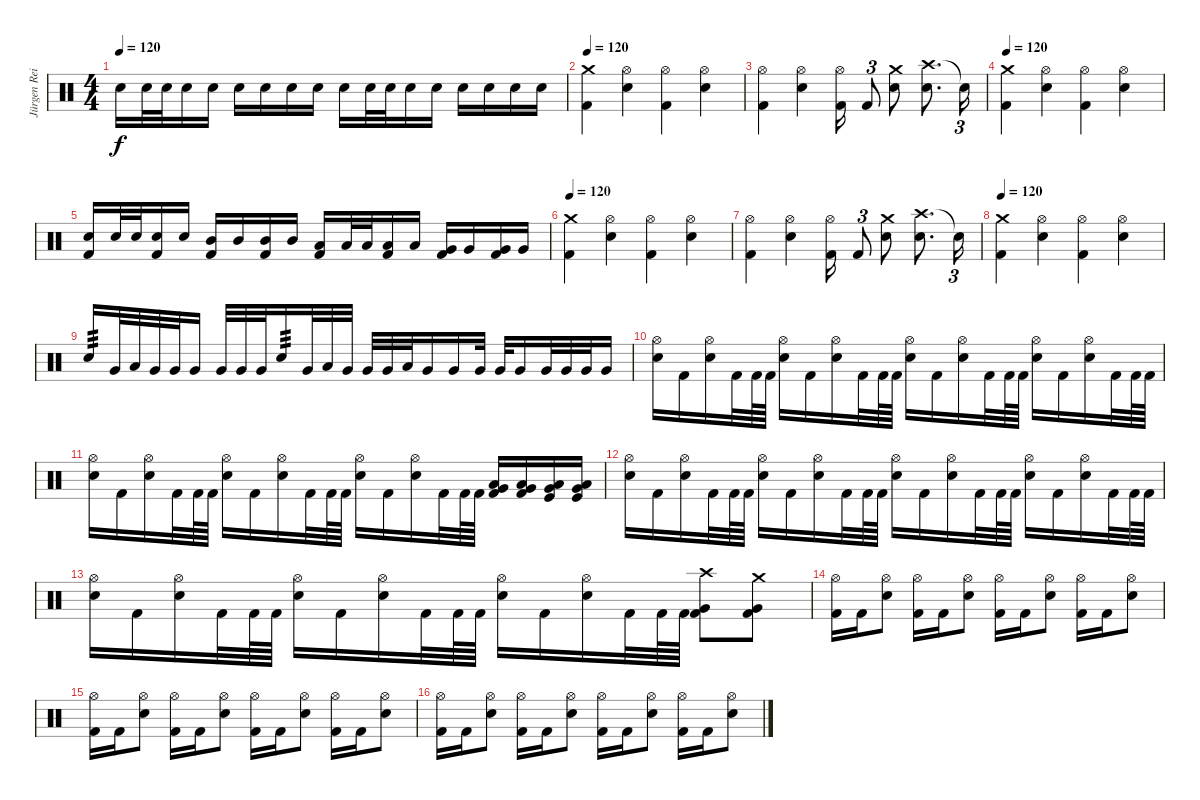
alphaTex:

\track ("Jürgen Reil" "Jürgen Rei") {instrument percussion}
\staff {score}
\articulation defaults
\ts (4 4)
\tempo 120
\clef neutral
\ks c "Electric Snare (hit)".16{dy f} "Electric Snare (hit)".32 "Electric Snare (hit)".32 "Electric Snare (hit)".16 "Electric Snare (hit)".16 "Electric Snare (hit)".16 "Electric Snare (hit)".16 "Electric Snare (hit)".16 "Electric Snare (hit)".16 "Electric Snare (hit)".16 "Electric Snare (hit)".32 "Electric Snare (hit)".32 "Electric Snare (hit)".16 "Electric Snare (hit)".16 "Electric Snare (hit)".16 "Electric Snare (hit)".16 "Electric Snare (hit)".16 "Electric Snare (hit)".16
|
\tempo 120
("Crash medium (hit)" "Kick (hit) 2").4 ("Hi-Hat (open)" "Electric Snare (hit)").4 ("Hi-Hat (open)" "Kick (hit) 2").4 ("Hi-Hat (open)" "Electric Snare (hit)").4 |
("Hi-Hat (open)" "Kick (hit) 2").4 ("Hi-Hat (open)" "Electric Snare (hit)").4 ("Hi-Hat (open)" "Kick (hit) 2").16 "Kick (hit) 2".8{tu (3 2)} ("Crash medium (hit)" "Electric Snare (hit)").8 ("Crash high (hit)" "Electric Snare (hit)").8{d} "Snare (hit)"{t}.16{tu (3 2)} |
\tempo 120
("Crash medium (hit)" "Kick (hit) 2").4 ("Hi-Hat (open)" "Electric Snare (hit)").4 ("Hi-Hat (open)" "Kick (hit) 2").4 ("Hi-Hat (open)" "Electric Snare (hit)").4 |
("Electric Snare (hit)" "Kick (hit) 2").16 "Electric Snare (hit)".32 "Electric Snare (hit)".32 ("Electric Snare (hit)" "Kick (hit) 2").16 "Electric Snare (hit)".16 ("Mid Tom (hit)" "Kick (hit) 2").16 "Mid Tom (hit)".16 ("Mid Tom (hit)" "Kick (hit) 2").16 "Mid Tom (hit)".16 ("Low Tom (hit)" "Kick (hit) 2").16 "Low Tom (hit)".32 "Low Tom (hit)".32 ("Low Tom (hit)" "Kick (hit) 2").16 "Low Tom (hit)".16 ("Very Low Tom (hit)" "Kick (hit) 2").16 "Very Low Tom (hit)".16 ("Very Low Tom (hit)" "Kick (hit) 2").16 "Very Low Tom (hit)".16 |
\tempo 120
("Crash medium (hit)" "Kick (hit) 2").4 ("Hi-Hat (open)" "Electric Snare (hit)").4 ("Hi-Hat (open)" "Kick (hit) 2").4 ("Hi-Hat (open)" "Electric Snare (hit)").4 |
("Hi-Hat (open)" "Kick (hit) 2").4 ("Hi-Hat (open)" "Electric Snare (hit)").4 ("Hi-Hat (open)" "Kick (hit) 2").16 "Kick (hit) 2".8{tu (3 2)} ("Crash medium (hit)" "Electric Snare (hit)").8 ("Crash high (hit)" "Electric Snare (hit)").8{d} "Snare (hit)"{t}.16{tu (3 2)} |
\tempo 120
("Crash medium (hit)" "Kick (hit) 2").4 ("Hi-Hat (open)" "Electric Snare (hit)").4 ("Hi-Hat (open)" "Kick (hit) 2").4 ("Hi-Hat (open)" "Electric Snare (hit)").4 |
"Electric Snare (hit)".16{tp 3} "Very Low Tom (hit)".32 "Low Tom (hit)".32 "Very Low Tom (hit)".32 "Very Low Tom (hit)".32 "Very Low Tom (hit)".16 "Very Low Tom (hit)".32 "Very Low Tom (hit)".32 "Very Low Tom (hit)".32 "Electric Snare (hit)".16{tp 3} "Very Low Tom (hit)".32 "Low Tom (hit)".32 "Very Low Tom (hit)".32 "Very Low Tom (hit)".32 "Very Low Tom (hit)".32 "Low Tom (hit)".32 "Very Low Tom (hit)".16 "Very Low Tom (hit)".16 "Very Low Tom (hit)".32 "Very Low Tom (hit)".32 "Very Low Tom (hit)".16 "Very Low Tom (hit)".32 "Very Low Tom (hit)".32 "Very Low Tom (hit)".32 "Very Low Tom (hit)".16 |
("Hi-Hat (open)" "Electric Snare (hit)").16 "Kick (hit) 2".16 ("Hi-Hat (open)" "Electric Snare (hit)").16 "Kick (hit) 2".32 "Kick (hit) 2".64 "Kick (hit) 2".64 ("Hi-Hat (open)" "Electric Snare (hit)").16 "Kick (hit) 2".16 ("Hi-Hat (open)" "Electric Snare (hit)").16 "Kick (hit) 2".32 "Kick (hit) 2".64 "Kick (hit) 2".64 ("Hi-Hat (open)" "Electric Snare (hit)").16 "Kick (hit) 2".16 ("Hi-Hat (open)" "Electric Snare (hit)").16 "Kick (hit) 2".32 "Kick (hit) 2".64 "Kick (hit) 2".64 ("Hi-Hat (open)" "Electric Snare (hit)").16 "Kick (hit) 2".16 ("Hi-Hat (open)" "Electric Snare (hit)").16 "Kick (hit) 2".32 "Kick (hit) 2".64 "Kick (hit) 2".64 |
("Hi-Hat (open)" "Electric Snare (hit)").16 "Kick (hit) 2".16 ("Hi-Hat (open)" "Electric Snare (hit)").16 "Kick (hit) 2".32 "Kick (hit) 2".64 "Kick (hit) 2".64 ("Hi-Hat (open)" "Electric Snare (hit)").16 "Kick (hit) 2".16 ("Hi-Hat (open)" "Electric Snare (hit)").16 "Kick (hit) 2".32 "Kick (hit) 2".64 "Kick (hit) 2".64 ("Hi-Hat (open)" "Electric Snare (hit)").16 "Kick (hit) 2".16 ("Hi-Hat (open)" "Electric Snare (hit)").16 "Kick (hit) 2".32 "Kick (hit) 2".64 "Kick (hit) 2".64 ("Low Tom (hit)" "Very Low Tom (hit)" "Kick (hit) 2").16 ("Low Tom (hit)" "Very Low Tom (hit)" "Kick (hit) 2").16 ("Low Tom (hit)" "Very Low Tom (hit)" "Kick (hit)").16 ("Low Tom (hit)" "Very Low Tom (hit)" "Kick (hit)").16 |
("Hi-Hat (open)" "Electric Snare (hit)").16 "Kick (hit) 2".16 ("Hi-Hat (open)" "Electric Snare (hit)").16 "Kick (hit) 2".32 "Kick (hit) 2".64 "Kick (hit) 2".64 ("Hi-Hat (open)" "Electric Snare (hit)").16 "Kick (hit) 2".16 ("Hi-Hat (open)" "Electric Snare (hit)").16 "Kick (hit) 2".32 "Kick (hit) 2".64 "Kick (hit) 2".64 ("Hi-Hat (open)" "Electric Snare (hit)").16 "Kick (hit) 2".16 ("Hi-Hat (open)" "Electric Snare (hit)").16 "Kick (hit) 2".32 "Kick (hit) 2".64 "Kick (hit) 2".64 ("Hi-Hat (open)" "Electric Snare (hit)").16 "Kick (hit) 2".16 ("Hi-Hat (open)" "Electric Snare (hit)").16 "Kick (hit) 2".32 "Kick (hit) 2".64 "Kick (hit) 2".64 |
("Hi-Hat (open)" "Electric Snare (hit)").16 "Kick (hit) 2".16 ("Hi-Hat (open)" "Electric Snare (hit)").16 "Kick (hit) 2".32 "Kick (hit) 2".64 "Kick (hit) 2".64 ("Hi-Hat (open)" "Electric Snare (hit)").16 "Kick (hit) 2".16 ("Hi-Hat (open)" "Electric Snare (hit)").16 "Kick (hit) 2".32 "Kick (hit) 2".64 "Kick (hit) 2".64 ("Hi-Hat (open)" "Electric Snare (hit)").16 "Kick (hit) 2".16 ("Hi-Hat (open)" "Electric Snare (hit)").16 "Kick (hit) 2".32 "Kick (hit) 2".64 "Kick (hit) 2".64 ("Crash high (hit)" "Very Low Tom (hit)" "Kick (hit) 2").8 ("Crash medium (hit)" "Very Low Tom (hit)" "Kick (hit) 2").8 |
("Hi-Hat (open)" "Kick (hit) 2").16 "Kick (hit) 2".16 ("Hi-Hat (open)" "Electric Snare (hit)").8 ("Hi-Hat (open)" "Kick (hit) 2").16 "Kick (hit) 2".16 ("Hi-Hat (open)" "Electric Snare (hit)").8 ("Hi-Hat (open)" "Kick (hit) 2").16 "Kick (hit) 2".16 ("Hi-Hat (open)" "Electric Snare (hit)").8 ("Hi-Hat (open)" "Kick (hit) 2").16 "Kick (hit) 2".16 ("Hi-Hat (open)" "Electric Snare (hit)").8 |
("Hi-Hat (open)" "Kick (hit) 2").16 "Kick (hit) 2".16 ("Hi-Hat (open)" "Electric Snare (hit)").8 ("Hi-Hat (open)" "Kick (hit) 2").16 "Kick (hit) 2".16 ("Hi-Hat (open)" "Electric Snare (hit)").8 ("Hi-Hat (open)" "Kick (hit) 2").16 "Kick (hit) 2".16 ("Hi-Hat (open)" "Electric Snare (hit)").8 ("Hi-Hat (open)" "Kick (hit) 2").16 "Kick (hit) 2".16 ("Hi-Hat (open)" "Electric Snare (hit)").8 |
("Hi-Hat (open)" "Kick (hit) 2").16 "Kick (hit) 2".16 ("Hi-Hat (open)" "Electric Snare (hit)").8 ("Hi-Hat (open)" "Kick (hit) 2").16 "Kick (hit) 2".16 ("Hi-Hat (open)" "Electric Snare (hit)").8 ("Hi-Hat (open)" "Kick (hit) 2").16 "Kick (hit) 2".16 ("Hi-Hat (open)" "Electric Snare (hit)").8 ("Hi-Hat (open)" "Kick (hit) 2").16 "Kick (hit) 2".16 ("Hi-Hat (open)" "Electric Snare (hit)").8
